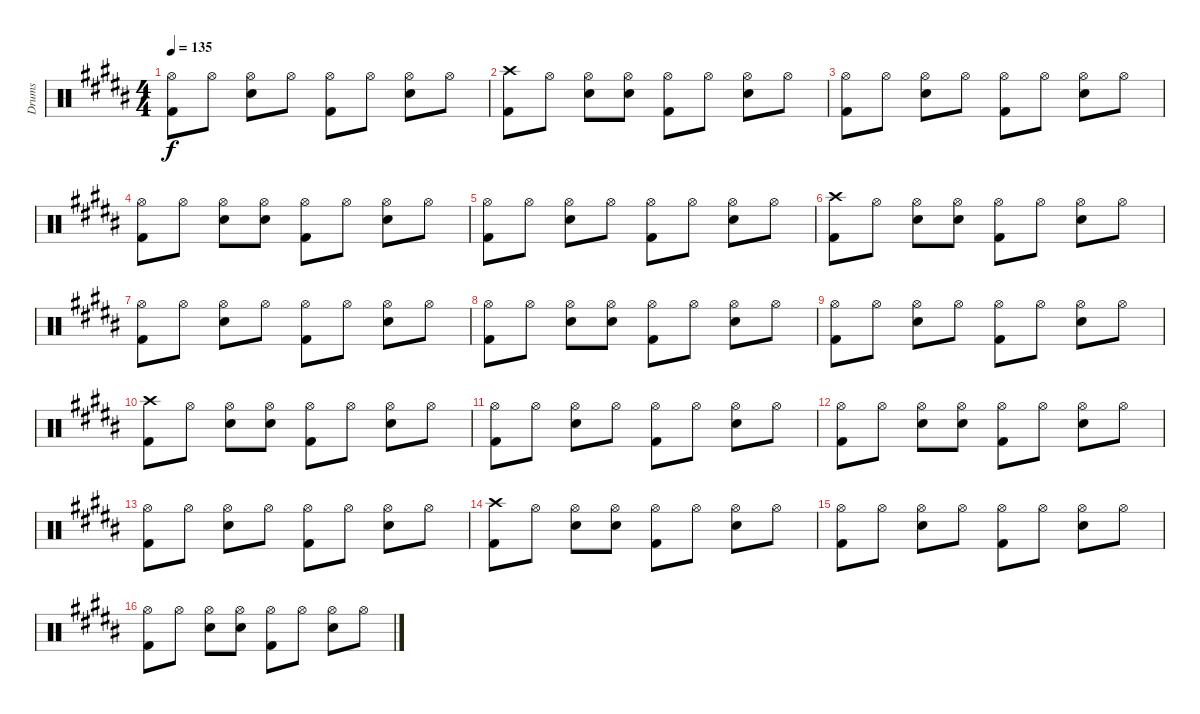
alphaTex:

\track ("Drums" "Drums") {instrument percussion}
\staff {score}
\articulation defaults
\ts (4 4)
\tempo 135
\clef neutral
\ks b
("Hi-Hat (open)" "Kick (hit) 2").8{dy f} "Hi-Hat (open)".8 ("Hi-Hat (open)" "Snare (hit) 2").8 "Hi-Hat (open)".8 ("Hi-Hat (open)" "Kick (hit) 2").8 "Hi-Hat (open)".8 ("Hi-Hat (open)" "Snare (hit) 2").8 "Hi-Hat (open)".8 |
("Crash high (hit)" "Kick (hit) 2").8 "Hi-Hat (open)".8 ("Hi-Hat (open)" "Snare (hit) 2").8 ("Hi-Hat (open)" "Snare (hit) 2").8 ("Hi-Hat (open)" "Kick (hit) 2").8 "Hi-Hat (open)".8 ("Hi-Hat (open)" "Snare (hit) 2").8 "Hi-Hat (open)".8 |
("Hi-Hat (open)" "Kick (hit) 2").8 "Hi-Hat (open)".8 ("Hi-Hat (open)" "Snare (hit) 2").8 "Hi-Hat (open)".8 ("Hi-Hat (open)" "Kick (hit) 2").8 "Hi-Hat (open)".8 ("Hi-Hat (open)" "Snare (hit) 2").8 "Hi-Hat (open)".8 |
("Hi-Hat (open)" "Kick (hit) 2").8 "Hi-Hat (open)".8 ("Hi-Hat (open)" "Snare (hit) 2").8 ("Hi-Hat (open)" "Snare (hit) 2").8 ("Hi-Hat (open)" "Kick (hit) 2").8 "Hi-Hat (open)".8 ("Hi-Hat (open)" "Snare (hit) 2").8 "Hi-Hat (open)".8 |
("Hi-Hat (open)" "Kick (hit) 2").8 "Hi-Hat (open)".8 ("Hi-Hat (open)" "Snare (hit) 2").8 "Hi-Hat (open)".8 ("Hi-Hat (open)" "Kick (hit) 2").8 "Hi-Hat (open)".8 ("Hi-Hat (open)" "Snare (hit) 2").8 "Hi-Hat (open)".8 |
("Crash high (hit)" "Kick (hit) 2").8 "Hi-Hat (open)".8 ("Hi-Hat (open)" "Snare (hit) 2").8 ("Hi-Hat (open)" "Snare (hit) 2").8 ("Hi-Hat (open)" "Kick (hit) 2").8 "Hi-Hat (open)".8 ("Hi-Hat (open)" "Snare (hit) 2").8 "Hi-Hat (open)".8 |
("Hi-Hat (open)" "Kick (hit) 2").8 "Hi-Hat (open)".8 ("Hi-Hat (open)" "Snare (hit) 2").8 "Hi-Hat (open)".8 ("Hi-Hat (open)" "Kick (hit) 2").8 "Hi-Hat (open)".8 ("Hi-Hat (open)" "Snare (hit) 2").8 "Hi-Hat (open)".8 |
("Hi-Hat (open)" "Kick (hit) 2").8 "Hi-Hat (open)".8 ("Hi-Hat (open)" "Snare (hit) 2").8 ("Hi-Hat (open)" "Snare (hit) 2").8 ("Hi-Hat (open)" "Kick (hit) 2").8 "Hi-Hat (open)".8 ("Hi-Hat (open)" "Snare (hit) 2").8 "Hi-Hat (open)".8 |
("Hi-Hat (open)" "Kick (hit) 2").8 "Hi-Hat (open)".8 ("Hi-Hat (open)" "Snare (hit) 2").8 "Hi-Hat (open)".8 ("Hi-Hat (open)" "Kick (hit) 2").8 "Hi-Hat (open)".8 ("Hi-Hat (open)" "Snare (hit) 2").8 "Hi-Hat (open)".8 |
("Crash high (hit)" "Kick (hit) 2").8 "Hi-Hat (open)".8 ("Hi-Hat (open)" "Snare (hit) 2").8 ("Hi-Hat (open)" "Snare (hit) 2").8 ("Hi-Hat (open)" "Kick (hit) 2").8 "Hi-Hat (open)".8 ("Hi-Hat (open)" "Snare (hit) 2").8 "Hi-Hat (open)".8 |
("Hi-Hat (open)" "Kick (hit) 2").8 "Hi-Hat (open)".8 ("Hi-Hat (open)" "Snare (hit) 2").8 "Hi-Hat (open)".8 ("Hi-Hat (open)" "Kick (hit) 2").8 "Hi-Hat (open)".8 ("Hi-Hat (open)" "Snare (hit) 2").8 "Hi-Hat (open)".8 |
("Hi-Hat (open)" "Kick (hit) 2").8 "Hi-Hat (open)".8 ("Hi-Hat (open)" "Snare (hit) 2").8 ("Hi-Hat (open)" "Snare (hit) 2").8 ("Hi-Hat (open)" "Kick (hit) 2").8 "Hi-Hat (open)".8 ("Hi-Hat (open)" "Snare (hit) 2").8 "Hi-Hat (open)".8 |
("Hi-Hat (open)" "Kick (hit) 2").8 "Hi-Hat (open)".8 ("Hi-Hat (open)" "Snare (hit) 2").8 "Hi-Hat (open)".8 ("Hi-Hat (open)" "Kick (hit) 2").8 "Hi-Hat (open)".8 ("Hi-Hat (open)" "Snare (hit) 2").8 "Hi-Hat (open)".8 |
("Crash high (hit)" "Kick (hit) 2").8 "Hi-Hat (open)".8 ("Hi-Hat (open)" "Snare (hit) 2").8 ("Hi-Hat (open)" "Snare (hit) 2").8 ("Hi-Hat (open)" "Kick (hit) 2").8 "Hi-Hat (open)".8 ("Hi-Hat (open)" "Snare (hit) 2").8 "Hi-Hat (open)".8 |
("Hi-Hat (open)" "Kick (hit) 2").8 "Hi-Hat (open)".8 ("Hi-Hat (open)" "Snare (hit) 2").8 "Hi-Hat (open)".8 ("Hi-Hat (open)" "Kick (hit) 2").8 "Hi-Hat (open)".8 ("Hi-Hat (open)" "Snare (hit) 2").8 "Hi-Hat (open)".8 |
("Hi-Hat (open)" "Kick (hit) 2").8 "Hi-Hat (open)".8 ("Hi-Hat (open)" "Snare (hit) 2").8 ("Hi-Hat (open)" "Snare (hit) 2").8 ("Hi-Hat (open)" "Kick (hit) 2").8 "Hi-Hat (open)".8 ("Hi-Hat (open)" "Snare (hit) 2").8 "Hi-Hat (open)".8
